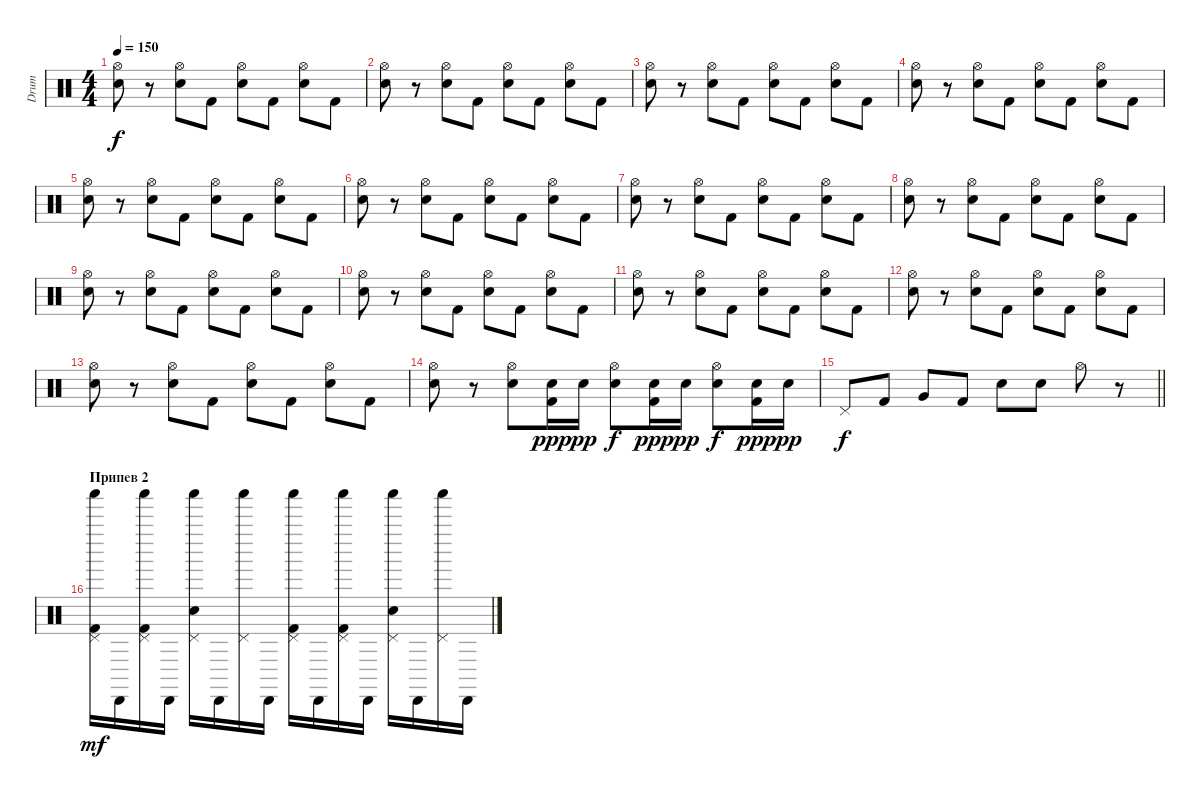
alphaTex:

\track ("Drum" "Drum") {instrument percussion}
\staff {score}
\articulation defaults
\ts (4 4)
\tempo 150
\clef neutral
\ks c
("Snare (hit) 2" "Hi-Hat (open)").8{dy f} r.8 ("Snare (hit) 2" "Hi-Hat (open)").8 "Kick (hit) 2".8 ("Snare (hit) 2" "Hi-Hat (open)").8 "Kick (hit) 2".8 ("Snare (hit) 2" "Hi-Hat (open)").8 "Kick (hit) 2".8 |
("Snare (hit) 2" "Hi-Hat (open)").8 r.8 ("Snare (hit) 2" "Hi-Hat (open)").8 "Kick (hit) 2".8 ("Snare (hit) 2" "Hi-Hat (open)").8 "Kick (hit) 2".8 ("Snare (hit) 2" "Hi-Hat (open)").8 "Kick (hit) 2".8 |
("Snare (hit) 2" "Hi-Hat (open)").8 r.8 ("Snare (hit) 2" "Hi-Hat (open)").8 "Kick (hit) 2".8 ("Snare (hit) 2" "Hi-Hat (open)").8 "Kick (hit) 2".8 ("Snare (hit) 2" "Hi-Hat (open)").8 "Kick (hit) 2".8 |
("Snare (hit) 2" "Hi-Hat (open)").8 r.8 ("Snare (hit) 2" "Hi-Hat (open)").8 "Kick (hit) 2".8 ("Snare (hit) 2" "Hi-Hat (open)").8 "Kick (hit) 2".8 ("Snare (hit) 2" "Hi-Hat (open)").8 "Kick (hit) 2".8 |
("Snare (hit) 2" "Hi-Hat (open)").8 r.8 ("Snare (hit) 2" "Hi-Hat (open)").8 "Kick (hit) 2".8 ("Snare (hit) 2" "Hi-Hat (open)").8 "Kick (hit) 2".8 ("Snare (hit) 2" "Hi-Hat (open)").8 "Kick (hit) 2".8 |
("Snare (hit) 2" "Hi-Hat (open)").8 r.8 ("Snare (hit) 2" "Hi-Hat (open)").8 "Kick (hit) 2".8 ("Snare (hit) 2" "Hi-Hat (open)").8 "Kick (hit) 2".8 ("Snare (hit) 2" "Hi-Hat (open)").8 "Kick (hit) 2".8 |
("Snare (hit) 2" "Hi-Hat (open)").8 r.8 ("Snare (hit) 2" "Hi-Hat (open)").8 "Kick (hit) 2".8 ("Snare (hit) 2" "Hi-Hat (open)").8 "Kick (hit) 2".8 ("Snare (hit) 2" "Hi-Hat (open)").8 "Kick (hit) 2".8 |
("Snare (hit) 2" "Hi-Hat (open)").8 r.8 ("Snare (hit) 2" "Hi-Hat (open)").8 "Kick (hit) 2".8 ("Snare (hit) 2" "Hi-Hat (open)").8 "Kick (hit) 2".8 ("Snare (hit) 2" "Hi-Hat (open)").8 "Kick (hit) 2".8 |
("Snare (hit) 2" "Hi-Hat (open)").8 r.8 ("Snare (hit) 2" "Hi-Hat (open)").8 "Kick (hit) 2".8 ("Snare (hit) 2" "Hi-Hat (open)").8 "Kick (hit) 2".8 ("Snare (hit) 2" "Hi-Hat (open)").8 "Kick (hit) 2".8 |
("Snare (hit) 2" "Hi-Hat (open)").8 r.8 ("Snare (hit) 2" "Hi-Hat (open)").8 "Kick (hit) 2".8 ("Snare (hit) 2" "Hi-Hat (open)").8 "Kick (hit) 2".8 ("Snare (hit) 2" "Hi-Hat (open)").8 "Kick (hit) 2".8 |
("Snare (hit) 2" "Hi-Hat (open)").8 r.8 ("Snare (hit) 2" "Hi-Hat (open)").8 "Kick (hit) 2".8 ("Snare (hit) 2" "Hi-Hat (open)").8 "Kick (hit) 2".8 ("Snare (hit) 2" "Hi-Hat (open)").8 "Kick (hit) 2".8 |
("Snare (hit) 2" "Hi-Hat (open)").8 r.8 ("Snare (hit) 2" "Hi-Hat (open)").8 "Kick (hit) 2".8 ("Snare (hit) 2" "Hi-Hat (open)").8 "Kick (hit) 2".8 ("Snare (hit) 2" "Hi-Hat (open)").8 "Kick (hit) 2".8 |
("Snare (hit) 2" "Hi-Hat (open)").8 r.8 ("Snare (hit) 2" "Hi-Hat (open)").8 "Kick (hit) 2".8 ("Snare (hit) 2" "Hi-Hat (open)").8 "Kick (hit) 2".8 ("Snare (hit) 2" "Hi-Hat (open)").8 "Kick (hit) 2".8 |
("Snare (hit) 2" "Hi-Hat (open)").8 r.8 ("Hi-Hat (open)" "Snare (hit) 2").8 ("Snare (hit) 2" "Kick (hit) 2").16{dy ppp} "Snare (hit) 2".16{dy pp} ("Hi-Hat (open)" "Snare (hit) 2").8{dy f} ("Snare (hit) 2" "Kick (hit) 2").16{dy ppp} "Snare (hit) 2".16{dy pp} ("Hi-Hat (open)" "Snare (hit) 2").8{dy f} ("Snare (hit) 2" "Kick (hit) 2").16{dy ppp} "Snare (hit) 2".16{dy pp} |
\barLineRight lightlight "Pedal Hi-Hat (hit)".8{dy f} "Kick (hit) 2".8 "Very Low Tom (hit)".8 "Kick (hit) 2".8 "Electric Snare (hit)".8 "Snare (hit) 2".8 "Hi-Hat (open)".8
r.8 |
\section ("" "Припев 2")
("Shaker (hit)" "Pedal Hi-Hat (hit)" "Kick (hit) 2").16{dy mf} "Cabasa (hit)".16 ("Pedal Hi-Hat (hit)" "Kick (hit) 2" "Shaker (hit)").16 "Cabasa (hit)".16 ("Shaker (hit)" "Pedal Hi-Hat (hit)" "Snare (hit) 2").16 "Cabasa (hit)".16 ("Pedal Hi-Hat (hit)" "Shaker (hit)").16 "Cabasa (hit)".16 ("Shaker (hit)" "Pedal Hi-Hat (hit)" "Kick (hit) 2").16 "Cabasa (hit)".16 ("Pedal Hi-Hat (hit)" "Kick (hit) 2" "Shaker (hit)").16 "Cabasa (hit)".16 ("Shaker (hit)" "Pedal Hi-Hat (hit)" "Snare (hit) 2").16 "Cabasa (hit)".16 ("Pedal Hi-Hat (hit)" "Shaker (hit)").16 "Cabasa (hit)".16
